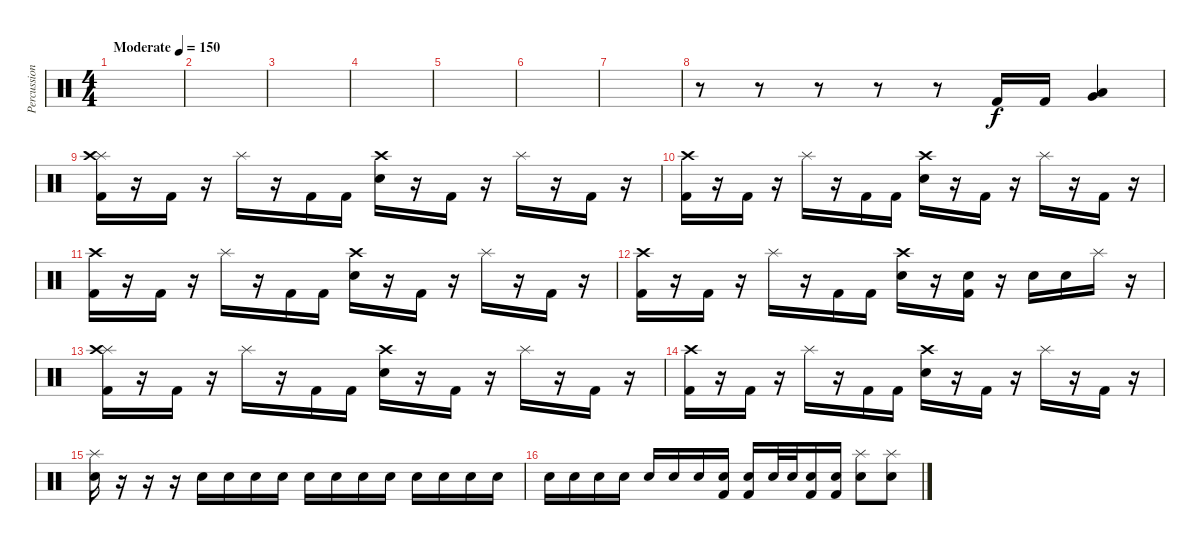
\track ("Percussion" "Percussion") {instrument percussion}
\staff {score}
\articulation defaults
\ts (4 4)
\tempo (150 "Moderate")
\clef neutral
\ks c
|
|
|
|
|
|
|
r.8 r.8 r.8 r.8 r.8 "Kick (hit) 2".16 "Kick (hit) 2".16 ("Very Low Tom (hit)" "Low Tom (hit)").4 |
("Splash (hit)" "Crash high (hit)" "Kick (hit) 2").16 r.16 "Kick (hit) 2".16 r.16 "Splash (hit)".16 r.16 "Kick (hit) 2".16 "Kick (hit) 2".16 ("Crash high (hit)" "Snare (hit) 2").16 r.16 "Kick (hit) 2".16 r.16 "Splash (hit)".16 r.16 "Kick (hit) 2".16 r.16 |
("Crash high (hit)" "Kick (hit) 2").16 r.16 "Kick (hit) 2".16 r.16 "Splash (hit)".16 r.16 "Kick (hit) 2".16 "Kick (hit) 2".16 ("Crash high (hit)" "Snare (hit) 2").16 r.16 "Kick (hit) 2".16 r.16 "Splash (hit)".16 r.16 "Kick (hit) 2".16 r.16 |
("Crash high (hit)" "Kick (hit) 2").16 r.16 "Kick (hit) 2".16 r.16 "Splash (hit)".16 r.16 "Kick (hit) 2".16 "Kick (hit) 2".16 ("Crash high (hit)" "Snare (hit) 2").16 r.16 "Kick (hit) 2".16 r.16 "Splash (hit)".16 r.16 "Kick (hit) 2".16 r.16 |
("Crash high (hit)" "Kick (hit) 2").16 r.16 "Kick (hit) 2".16 r.16 "Splash (hit)".16 r.16 "Kick (hit) 2".16 "Kick (hit) 2".16 ("Crash high (hit)" "Snare (hit) 2").16 r.16 ("Snare (hit) 2" "Kick (hit) 2").16 r.16 "Snare (hit) 2".16 "Snare (hit) 2".16 "Splash (hit)".16 r.16 |
("Splash (hit)" "Crash high (hit)" "Kick (hit) 2").16 r.16 "Kick (hit) 2".16 r.16 "Splash (hit)".16 r.16 "Kick (hit) 2".16 "Kick (hit) 2".16 ("Crash high (hit)" "Snare (hit) 2").16 r.16 "Kick (hit) 2".16 r.16 "Splash (hit)".16 r.16 "Kick (hit) 2".16 r.16 |
("Crash high (hit)" "Kick (hit) 2").16 r.16 "Kick (hit) 2".16 r.16 "Splash (hit)".16 r.16 "Kick (hit) 2".16 "Kick (hit) 2".16 ("Crash high (hit)" "Snare (hit) 2").16 r.16 "Kick (hit) 2".16 r.16 "Splash (hit)".16 r.16 "Kick (hit) 2".16 r.16 |
("Splash (hit)" "Snare (hit) 2").16 r.16 r.16 r.16 "Snare (hit) 2".16 "Snare (hit) 2".16 "Snare (hit) 2".16 "Snare (hit) 2".16 "Snare (hit) 2".16 "Snare (hit) 2".16 "Snare (hit) 2".16 "Snare (hit) 2".16 "Snare (hit) 2".16 "Snare (hit) 2".16 "Snare (hit) 2".16 "Snare (hit) 2".16 |
"Snare (hit) 2".16 "Snare (hit) 2".16 "Snare (hit) 2".16 "Snare (hit) 2".16 "Snare (hit) 2".16 "Snare (hit) 2".16 "Snare (hit) 2".16 ("Snare (hit) 2" "Kick (hit) 2").16 ("Snare (hit) 2" "Kick (hit) 2").16 "Snare (hit) 2".32 "Snare (hit) 2".32 ("Snare (hit) 2" "Kick (hit) 2").16 ("Snare (hit) 2" "Kick (hit) 2").16 ("Splash (hit)" "Snare (hit) 2").8 ("Splash (hit)" "Snare (hit) 2").8
